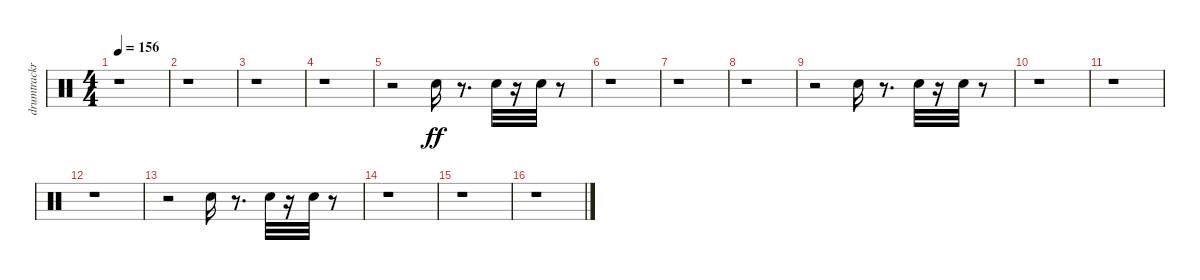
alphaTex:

\track ("drumtrackr " "drumtrackr") {instrument percussion}
\staff {score}
\articulation defaults
\ts (4 4)
\tempo 156
\clef neutral
\ks c
r.1{dy ff} |
r.1 |
r.1 |
r.1 |
r.2 "Snare (hit) 2".16 r.8{d} "Snare (hit) 2".32 r.16 "Snare (hit) 2".32 r.8 |
r.1 |
r.1 |
r.1 |
r.2 "Snare (hit) 2".16 r.8{d} "Snare (hit) 2".32 r.16 "Snare (hit) 2".32 r.8 |
r.1 |
r.1 |
r.1 |
r.2 "Snare (hit) 2".16 r.8{d} "Snare (hit) 2".32 r.16 "Snare (hit) 2".32 r.8 |
r.1 |
r.1 |
r.1
